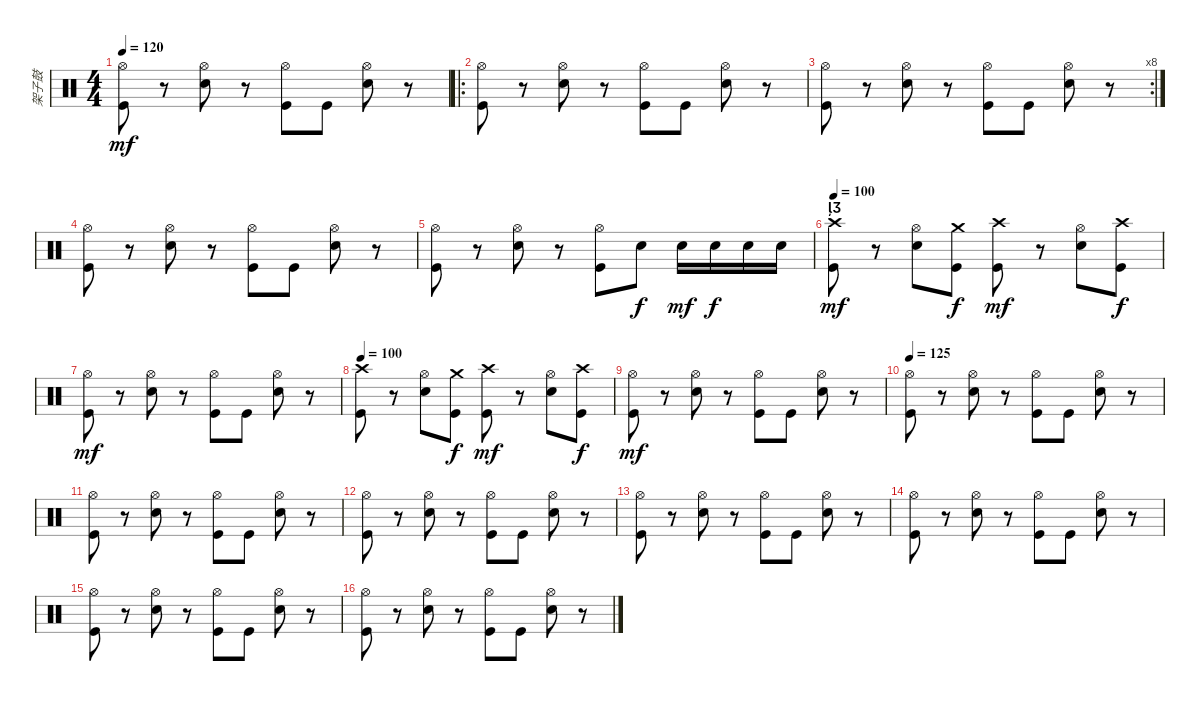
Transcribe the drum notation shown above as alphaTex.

\track ("架子鼓" "架子鼓") {instrument percussion}
\staff {score}
\articulation defaults
\ts (4 4)
\tempo 120
\clef neutral
\ks c
("Hi-Hat (open)" "Kick (hit)").8{dy mf} r.8 ("Hi-Hat (open)" "Snare (hit) 2").8 r.8 ("Hi-Hat (open)" "Kick (hit)").8 "Kick (hit)".8 ("Hi-Hat (open)" "Snare (hit) 2").8 r.8 |
\ro
("Hi-Hat (open)" "Kick (hit)").8 r.8 ("Hi-Hat (open)" "Snare (hit) 2").8 r.8 ("Hi-Hat (open)" "Kick (hit)").8 "Kick (hit)".8 ("Hi-Hat (open)" "Snare (hit) 2").8 r.8 |
\rc 8
("Hi-Hat (open)" "Kick (hit)").8 r.8 ("Hi-Hat (open)" "Snare (hit) 2").8 r.8 ("Hi-Hat (open)" "Kick (hit)").8 "Kick (hit)".8 ("Hi-Hat (open)" "Snare (hit) 2").8 r.8 |
("Hi-Hat (open)" "Kick (hit)").8 r.8 ("Hi-Hat (open)" "Snare (hit) 2").8 r.8 ("Hi-Hat (open)" "Kick (hit)").8 "Kick (hit)".8 ("Hi-Hat (open)" "Snare (hit) 2").8 r.8 |
("Hi-Hat (open)" "Kick (hit)").8 r.8 ("Hi-Hat (open)" "Snare (hit) 2").8 r.8 ("Hi-Hat (open)" "Kick (hit)").8 "Snare (hit) 2".8{dy f} "Snare (hit) 2".16{dy mf} "Snare (hit) 2".16{dy f} "Snare (hit) 2".16 "Snare (hit) 2".16 |
\section ("" "")
\tempo 80
\tempo 100
("Crash high (hit)" "Kick (hit)").8{dy mf} r.8 ("Hi-Hat (open)" "Snare (hit) 2").8 ("Crash medium (hit)" "Kick (hit)").8{dy f} ("Crash high (hit)" "Kick (hit)").8{dy mf} r.8 ("Hi-Hat (open)" "Snare (hit) 2").8 ("Crash high (hit)" "Kick (hit)").8{dy f} |
("Hi-Hat (open)" "Kick (hit)").8{dy mf} r.8 ("Hi-Hat (open)" "Snare (hit) 2").8 r.8 ("Hi-Hat (open)" "Kick (hit)").8 "Kick (hit)".8 ("Hi-Hat (open)" "Snare (hit) 2").8 r.8 |
\tempo 80
\tempo 100
("Crash high (hit)" "Kick (hit)").8 r.8 ("Hi-Hat (open)" "Snare (hit) 2").8 ("Crash medium (hit)" "Kick (hit)").8{dy f} ("Crash high (hit)" "Kick (hit)").8{dy mf} r.8 ("Hi-Hat (open)" "Snare (hit) 2").8 ("Crash high (hit)" "Kick (hit)").8{dy f} |
("Hi-Hat (open)" "Kick (hit)").8{dy mf} r.8 ("Hi-Hat (open)" "Snare (hit) 2").8 r.8 ("Hi-Hat (open)" "Kick (hit)").8 "Kick (hit)".8 ("Hi-Hat (open)" "Snare (hit) 2").8 r.8 |
\tempo 125
("Hi-Hat (open)" "Kick (hit)").8 r.8 ("Hi-Hat (open)" "Snare (hit) 2").8 r.8 ("Hi-Hat (open)" "Kick (hit)").8 "Kick (hit)".8 ("Hi-Hat (open)" "Snare (hit) 2").8 r.8 |
("Hi-Hat (open)" "Kick (hit)").8 r.8 ("Hi-Hat (open)" "Snare (hit) 2").8 r.8 ("Hi-Hat (open)" "Kick (hit)").8 "Kick (hit)".8 ("Hi-Hat (open)" "Snare (hit) 2").8 r.8 |
("Hi-Hat (open)" "Kick (hit)").8 r.8 ("Hi-Hat (open)" "Snare (hit) 2").8 r.8 ("Hi-Hat (open)" "Kick (hit)").8 "Kick (hit)".8 ("Hi-Hat (open)" "Snare (hit) 2").8 r.8 |
("Hi-Hat (open)" "Kick (hit)").8 r.8 ("Hi-Hat (open)" "Snare (hit) 2").8 r.8 ("Hi-Hat (open)" "Kick (hit)").8 "Kick (hit)".8 ("Hi-Hat (open)" "Snare (hit) 2").8 r.8 |
("Hi-Hat (open)" "Kick (hit)").8 r.8 ("Hi-Hat (open)" "Snare (hit) 2").8 r.8 ("Hi-Hat (open)" "Kick (hit)").8 "Kick (hit)".8 ("Hi-Hat (open)" "Snare (hit) 2").8 r.8 |
("Hi-Hat (open)" "Kick (hit)").8 r.8 ("Hi-Hat (open)" "Snare (hit) 2").8 r.8 ("Hi-Hat (open)" "Kick (hit)").8 "Kick (hit)".8 ("Hi-Hat (open)" "Snare (hit) 2").8 r.8 |
("Hi-Hat (open)" "Kick (hit)").8 r.8 ("Hi-Hat (open)" "Snare (hit) 2").8 r.8 ("Hi-Hat (open)" "Kick (hit)").8 "Kick (hit)".8 ("Hi-Hat (open)" "Snare (hit) 2").8 r.8
